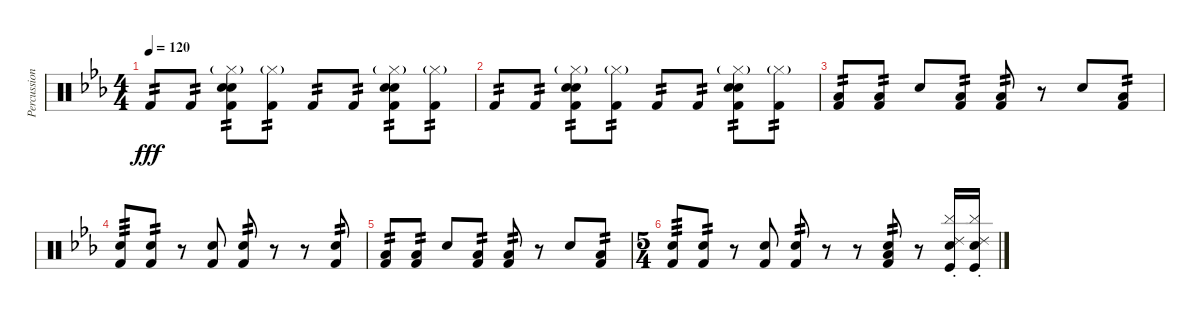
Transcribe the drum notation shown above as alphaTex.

\track ("Percussion" "Percussion") {instrument percussion}
\staff {score}
\articulation defaults
\ts (4 4)
\tempo 120
\clef neutral
\ks cminor "Kick (hit) 2".8{tp 2 dy fff} "Kick (hit) 2".8{tp 2}
("Electric Snare (hit)" "Hi-Hat (closed)"{g} "Hand Clap (hit)" "Kick (hit) 2").8{tp 2} ("Hi-Hat (closed)"{g} "Kick (hit) 2").8{tp 2} "Kick (hit) 2".8{tp 2} "Kick (hit) 2".8{tp 2} ("Electric Snare (hit)" "Hi-Hat (closed)"{g} "Hand Clap (hit)" "Kick (hit) 2").8{tp 2} ("Hi-Hat (closed)"{g} "Kick (hit) 2").8{tp 2} |
"Kick (hit) 2".8{tp 2} "Kick (hit) 2".8{tp 2} ("Electric Snare (hit)" "Hi-Hat (closed)"{g} "Hand Clap (hit)" "Kick (hit) 2").8{tp 2} ("Hi-Hat (closed)"{g} "Kick (hit) 2").8{tp 2} "Kick (hit) 2".8{tp 2} "Kick (hit) 2".8{tp 2} ("Electric Snare (hit)" "Hi-Hat (closed)"{g} "Hand Clap (hit)" "Kick (hit) 2").8{tp 2} ("Hi-Hat (closed)"{g} "Kick (hit) 2").8{tp 2} |
("Low Floor Tom (hit)" "Kick (hit) 2").8{tp 2} ("Low Floor Tom (hit)" "Kick (hit) 2").8{tp 2} "Hand Clap (hit)".8 ("Low Floor Tom (hit)" "Kick (hit) 2").8{tp 2} ("Low Floor Tom (hit)" "Kick (hit) 2").8{tp 2} r.8 "Hand Clap (hit)".8 ("Low Floor Tom (hit)" "Kick (hit) 2").8{tp 2} |
("Electric Snare (hit)" "Kick (hit) 2").8{tp 3} ("Electric Snare (hit)" "Kick (hit) 2").8{tp 2} r.8 ("Electric Snare (hit)" "Kick (hit) 2").8 ("Electric Snare (hit)" "Kick (hit) 2").8{tp 2} r.8 r.8 ("Electric Snare (hit)" "Kick (hit) 2").8{tp 2} |
("Low Floor Tom (hit)" "Kick (hit) 2").8{tp 2} ("Low Floor Tom (hit)" "Kick (hit) 2").8{tp 2} "Hand Clap (hit)".8 ("Low Floor Tom (hit)" "Kick (hit) 2").8{tp 2} ("Low Floor Tom (hit)" "Kick (hit) 2").8{tp 2} r.8 "Hand Clap (hit)".8 ("Low Floor Tom (hit)" "Kick (hit) 2").8{tp 2} |
\ts (5 4)
("Snare (hit) 2" "Kick (hit) 2").8{tp 3} ("Snare (hit) 2" "Kick (hit) 2").8{tp 2} r.8 ("Snare (hit) 2" "Kick (hit) 2").8 ("Snare (hit) 2" "Kick (hit) 2").8{tp 2} r.8 r.8 ("Low Floor Tom (hit)" "Snare (hit) 2" "Kick (hit) 2").8{tp 2} r.8 ("Ride (choke) 2" "Cymbal (hit)" "Snare (hit) 2" "Kick (hit)").16 ("Ride (choke) 2" "Cymbal (hit)" "Snare (hit) 2" "Kick (hit)").16
